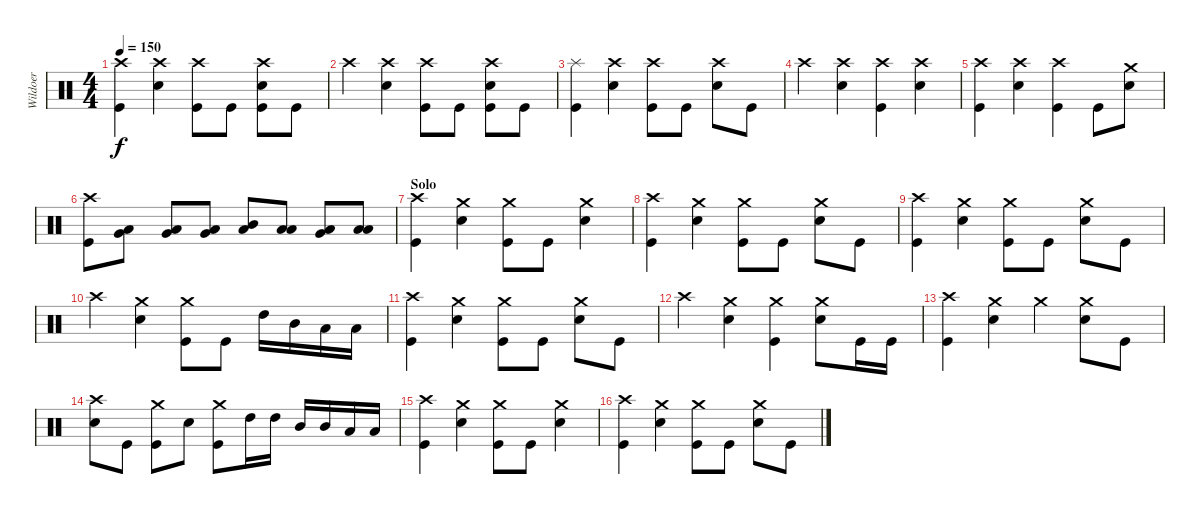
\track ("Wildoer" "Wildoer") {instrument percussion}
\staff {score}
\articulation defaults
\ts (4 4)
\tempo 150
\clef neutral
\ks c
("Crash high (hit)" "Kick (hit)").4{dy f} ("Crash high (hit)" "Electric Snare (hit)").4 ("Crash high (hit)" "Kick (hit)").8 "Kick (hit)".8 ("Crash high (hit)" "Electric Snare (hit)" "Kick (hit)").8 "Kick (hit)".8 |
"Crash high (hit)".4 ("Crash high (hit)" "Electric Snare (hit)").4 ("Crash high (hit)" "Kick (hit)").8 "Kick (hit)".8 ("Crash high (hit)" "Electric Snare (hit)" "Kick (hit)").8 "Kick (hit)".8 |
("Splash (hit)" "Kick (hit)").4 ("Crash high (hit)" "Electric Snare (hit)").4 ("Crash high (hit)" "Kick (hit)").8 "Kick (hit)".8 ("Crash high (hit)" "Electric Snare (hit)").8 "Kick (hit)".8 |
"Crash high (hit)".4 ("Crash high (hit)" "Electric Snare (hit)").4 ("Crash high (hit)" "Kick (hit)").4 ("Crash high (hit)" "Electric Snare (hit)").4 |
("Crash high (hit)" "Kick (hit)").4 ("Crash high (hit)" "Electric Snare (hit)").4 ("Crash high (hit)" "Kick (hit)").4 "Kick (hit)".8 ("Crash medium (hit)" "Electric Snare (hit)").8 |
("Crash high (hit)" "Kick (hit)").8 ("Low Floor Tom (hit)" "Very Low Tom (hit)").8 ("Low Floor Tom (hit)" "Very Low Tom (hit)").8 ("Low Floor Tom (hit)" "Very Low Tom (hit)").8 ("Mid Tom (hit)" "Low Floor Tom (hit)").8 ("Low Tom (hit)" "Low Floor Tom (hit)").8 ("Very Low Tom (hit)" "Low Floor Tom (hit)").8 ("Low Tom (hit)" "Low Floor Tom (hit)").8 |
\section ("" "Solo")
("Crash high (hit)" "Kick (hit)").4 ("Crash medium (hit)" "Electric Snare (hit)").4 ("Crash medium (hit)" "Kick (hit)").8 "Kick (hit)".8 ("Crash medium (hit)" "Electric Snare (hit)").4 |
("Crash high (hit)" "Kick (hit)").4 ("Crash medium (hit)" "Electric Snare (hit)").4 ("Crash medium (hit)" "Kick (hit)").8 "Kick (hit)".8 ("Crash medium (hit)" "Electric Snare (hit)").8 "Kick (hit)".8 |
("Crash high (hit)" "Kick (hit)").4 ("Crash medium (hit)" "Electric Snare (hit)").4 ("Crash medium (hit)" "Kick (hit)").8 "Kick (hit)".8 ("Crash medium (hit)" "Electric Snare (hit)").8 "Kick (hit)".8 |
"Crash high (hit)".4 ("Crash medium (hit)" "Electric Snare (hit)").4 ("Crash medium (hit)" "Kick (hit)").8 "Kick (hit)".8 "High Tom (hit)".16 "Mid Tom (hit)".16 "Low Tom (hit)".16 "Low Tom (hit)".16 |
("Crash high (hit)" "Kick (hit)").4 ("Crash medium (hit)" "Electric Snare (hit)").4 ("Crash medium (hit)" "Kick (hit)").8 "Kick (hit)".8 ("Crash medium (hit)" "Electric Snare (hit)").8 "Kick (hit)".8 |
"Crash high (hit)".4 ("Crash medium (hit)" "Electric Snare (hit)").4 ("Crash medium (hit)" "Kick (hit)").4 ("Crash medium (hit)" "Electric Snare (hit)").8 "Kick (hit)".16 "Kick (hit)".16 |
("Crash high (hit)" "Kick (hit)").4 ("Crash medium (hit)" "Electric Snare (hit)").4 "Crash medium (hit)".4 ("Crash medium (hit)" "Electric Snare (hit)").8 "Kick (hit)".8 |
("Crash high (hit)" "Electric Snare (hit)").8 "Kick (hit)".8 ("Crash medium (hit)" "Kick (hit)").8 "Electric Snare (hit)".8 ("Crash medium (hit)" "Kick (hit)").8 "High Tom (hit)".16 "High Tom (hit)".16 "Mid Tom (hit)".16 "Mid Tom (hit)".16 "Low Tom (hit)".16 "Low Tom (hit)".16 |
("Crash high (hit)" "Kick (hit)").4 ("Crash medium (hit)" "Electric Snare (hit)").4 ("Crash medium (hit)" "Kick (hit)").8 "Kick (hit)".8 ("Crash medium (hit)" "Electric Snare (hit)").4 |
("Crash high (hit)" "Kick (hit)").4 ("Crash medium (hit)" "Electric Snare (hit)").4 ("Crash medium (hit)" "Kick (hit)").8 "Kick (hit)".8 ("Crash medium (hit)" "Electric Snare (hit)").8 "Kick (hit)".8
